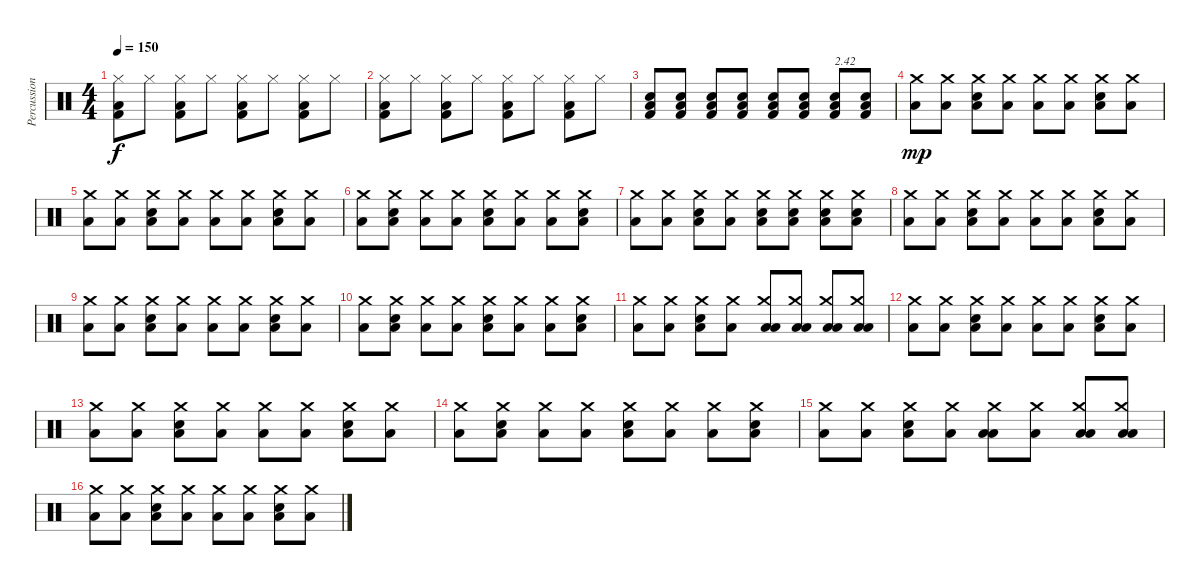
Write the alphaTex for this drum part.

\track ("Percussions" "Percussion") {instrument percussion}
\staff {score}
\articulation defaults
\ts (4 4)
\tempo 150
\clef neutral
\ks c
("Kick (hit) 2" "Low Floor Tom (hit)" "Hi-Hat (closed)").8{dy f} "Hi-Hat (closed)".8 ("Kick (hit) 2" "Low Floor Tom (hit)" "Hi-Hat (closed)").8 "Hi-Hat (closed)".8 ("Kick (hit) 2" "Low Floor Tom (hit)" "Hi-Hat (closed)").8 "Hi-Hat (closed)".8 ("Kick (hit) 2" "Low Floor Tom (hit)" "Hi-Hat (closed)").8 "Hi-Hat (closed)".8 |
("Kick (hit) 2" "Low Floor Tom (hit)" "Hi-Hat (closed)").8 "Hi-Hat (closed)".8 ("Kick (hit) 2" "Low Floor Tom (hit)" "Hi-Hat (closed)").8 "Hi-Hat (closed)".8 ("Kick (hit) 2" "Low Floor Tom (hit)" "Hi-Hat (closed)").8 "Hi-Hat (closed)".8 ("Kick (hit) 2" "Low Floor Tom (hit)" "Hi-Hat (closed)").8 "Hi-Hat (closed)".8{volume 11} |
("Kick (hit) 2" "Low Floor Tom (hit)" "Snare (hit) 2").8{volume 16} ("Kick (hit) 2" "Low Floor Tom (hit)" "Snare (hit) 2").8 ("Kick (hit) 2" "Low Floor Tom (hit)" "Snare (hit) 2").8 ("Kick (hit) 2" "Low Floor Tom (hit)" "Snare (hit) 2").8 ("Kick (hit) 2" "Low Floor Tom (hit)" "Snare (hit) 2").8 ("Kick (hit) 2" "Low Floor Tom (hit)" "Snare (hit) 2").8 ("Kick (hit) 2" "Low Floor Tom (hit)" "Snare (hit) 2").8{txt "2.42"} ("Kick (hit) 2" "Low Floor Tom (hit)" "Snare (hit) 2").8 |
("Low Floor Tom (hit)" "Crash medium (hit)").8{dy mp} ("Low Floor Tom (hit)" "Crash medium (hit)").8 ("Low Floor Tom (hit)" "Snare (hit) 2" "Crash medium (hit)").8 ("Low Floor Tom (hit)" "Crash medium (hit)").8 ("Low Floor Tom (hit)" "Crash medium (hit)").8 ("Low Floor Tom (hit)" "Crash medium (hit)").8 ("Low Floor Tom (hit)" "Snare (hit) 2" "Crash medium (hit)").8 ("Low Floor Tom (hit)" "Crash medium (hit)").8 |
("Low Floor Tom (hit)" "Crash medium (hit)").8 ("Low Floor Tom (hit)" "Crash medium (hit)").8 ("Low Floor Tom (hit)" "Snare (hit) 2" "Crash medium (hit)").8 ("Low Floor Tom (hit)" "Crash medium (hit)").8 ("Low Floor Tom (hit)" "Crash medium (hit)").8 ("Low Floor Tom (hit)" "Crash medium (hit)").8 ("Low Floor Tom (hit)" "Snare (hit) 2" "Crash medium (hit)").8 ("Low Floor Tom (hit)" "Crash medium (hit)").8 |
("Low Floor Tom (hit)" "Crash medium (hit)").8 ("Low Floor Tom (hit)" "Snare (hit) 2" "Crash medium (hit)").8 ("Low Floor Tom (hit)" "Crash medium (hit)").8 ("Low Floor Tom (hit)" "Crash medium (hit)").8 ("Low Floor Tom (hit)" "Snare (hit) 2" "Crash medium (hit)").8 ("Low Floor Tom (hit)" "Crash medium (hit)").8 ("Low Floor Tom (hit)" "Crash medium (hit)").8 ("Low Floor Tom (hit)" "Snare (hit) 2" "Crash medium (hit)").8 |
("Low Floor Tom (hit)" "Crash medium (hit)").8 ("Low Floor Tom (hit)" "Crash medium (hit)").8 ("Low Floor Tom (hit)" "Snare (hit) 2" "Crash medium (hit)").8 ("Low Floor Tom (hit)" "Crash medium (hit)").8 ("Low Floor Tom (hit)" "Snare (hit) 2" "Crash medium (hit)").8 ("Low Floor Tom (hit)" "Snare (hit) 2" "Crash medium (hit)").8 ("Low Floor Tom (hit)" "Snare (hit) 2" "Crash medium (hit)").8 ("Low Floor Tom (hit)" "Snare (hit) 2" "Crash medium (hit)").8 |
("Low Floor Tom (hit)" "Crash medium (hit)").8 ("Low Floor Tom (hit)" "Crash medium (hit)").8 ("Low Floor Tom (hit)" "Snare (hit) 2" "Crash medium (hit)").8 ("Low Floor Tom (hit)" "Crash medium (hit)").8 ("Low Floor Tom (hit)" "Crash medium (hit)").8 ("Low Floor Tom (hit)" "Crash medium (hit)").8 ("Low Floor Tom (hit)" "Snare (hit) 2" "Crash medium (hit)").8 ("Low Floor Tom (hit)" "Crash medium (hit)").8 |
("Low Floor Tom (hit)" "Crash medium (hit)").8 ("Low Floor Tom (hit)" "Crash medium (hit)").8 ("Low Floor Tom (hit)" "Snare (hit) 2" "Crash medium (hit)").8 ("Low Floor Tom (hit)" "Crash medium (hit)").8 ("Low Floor Tom (hit)" "Crash medium (hit)").8 ("Low Floor Tom (hit)" "Crash medium (hit)").8 ("Low Floor Tom (hit)" "Snare (hit) 2" "Crash medium (hit)").8 ("Low Floor Tom (hit)" "Crash medium (hit)").8 |
("Low Floor Tom (hit)" "Crash medium (hit)").8 ("Low Floor Tom (hit)" "Snare (hit) 2" "Crash medium (hit)").8 ("Low Floor Tom (hit)" "Crash medium (hit)").8 ("Low Floor Tom (hit)" "Crash medium (hit)").8 ("Low Floor Tom (hit)" "Snare (hit) 2" "Crash medium (hit)").8 ("Low Floor Tom (hit)" "Crash medium (hit)").8 ("Low Floor Tom (hit)" "Crash medium (hit)").8 ("Low Floor Tom (hit)" "Snare (hit) 2" "Crash medium (hit)").8 |
("Low Floor Tom (hit)" "Crash medium (hit)").8 ("Low Floor Tom (hit)" "Crash medium (hit)").8 ("Low Floor Tom (hit)" "Snare (hit) 2" "Crash medium (hit)").8 ("Low Floor Tom (hit)" "Crash medium (hit)").8 ("Low Floor Tom (hit)" "Low Tom (hit)" "Crash medium (hit)").8 ("Low Floor Tom (hit)" "Low Tom (hit)" "Crash medium (hit)").8 ("Low Floor Tom (hit)" "Low Tom (hit)" "Crash medium (hit)").8 ("Low Floor Tom (hit)" "Low Tom (hit)" "Crash medium (hit)").8 |
("Low Floor Tom (hit)" "Crash medium (hit)").8 ("Low Floor Tom (hit)" "Crash medium (hit)").8 ("Low Floor Tom (hit)" "Snare (hit) 2" "Crash medium (hit)").8 ("Low Floor Tom (hit)" "Crash medium (hit)").8 ("Low Floor Tom (hit)" "Crash medium (hit)").8 ("Low Floor Tom (hit)" "Crash medium (hit)").8 ("Low Floor Tom (hit)" "Snare (hit) 2" "Crash medium (hit)").8 ("Low Floor Tom (hit)" "Crash medium (hit)").8 |
("Low Floor Tom (hit)" "Crash medium (hit)").8 ("Low Floor Tom (hit)" "Crash medium (hit)").8 ("Low Floor Tom (hit)" "Snare (hit) 2" "Crash medium (hit)").8 ("Low Floor Tom (hit)" "Crash medium (hit)").8 ("Low Floor Tom (hit)" "Crash medium (hit)").8 ("Low Floor Tom (hit)" "Crash medium (hit)").8 ("Low Floor Tom (hit)" "Snare (hit) 2" "Crash medium (hit)").8 ("Low Floor Tom (hit)" "Crash medium (hit)").8 |
("Low Floor Tom (hit)" "Crash medium (hit)").8 ("Low Floor Tom (hit)" "Snare (hit) 2" "Crash medium (hit)").8 ("Low Floor Tom (hit)" "Crash medium (hit)").8 ("Low Floor Tom (hit)" "Crash medium (hit)").8 ("Low Floor Tom (hit)" "Snare (hit) 2" "Crash medium (hit)").8 ("Low Floor Tom (hit)" "Crash medium (hit)").8 ("Low Floor Tom (hit)" "Crash medium (hit)").8 ("Low Floor Tom (hit)" "Snare (hit) 2" "Crash medium (hit)").8 |
("Low Floor Tom (hit)" "Crash medium (hit)").8 ("Low Floor Tom (hit)" "Crash medium (hit)").8 ("Low Floor Tom (hit)" "Snare (hit) 2" "Crash medium (hit)").8 ("Low Floor Tom (hit)" "Crash medium (hit)").8 ("Low Floor Tom (hit)" "Low Tom (hit)" "Crash medium (hit)").8 ("Low Floor Tom (hit)" "Crash medium (hit)").8 ("Low Floor Tom (hit)" "Low Tom (hit)" "Crash medium (hit)").8 ("Low Floor Tom (hit)" "Low Tom (hit)" "Crash medium (hit)").8 |
("Low Floor Tom (hit)" "Crash medium (hit)").8 ("Low Floor Tom (hit)" "Crash medium (hit)").8 ("Low Floor Tom (hit)" "Snare (hit) 2" "Crash medium (hit)").8 ("Low Floor Tom (hit)" "Crash medium (hit)").8 ("Low Floor Tom (hit)" "Crash medium (hit)").8 ("Low Floor Tom (hit)" "Crash medium (hit)").8 ("Low Floor Tom (hit)" "Snare (hit) 2" "Crash medium (hit)").8 ("Low Floor Tom (hit)" "Crash medium (hit)").8
